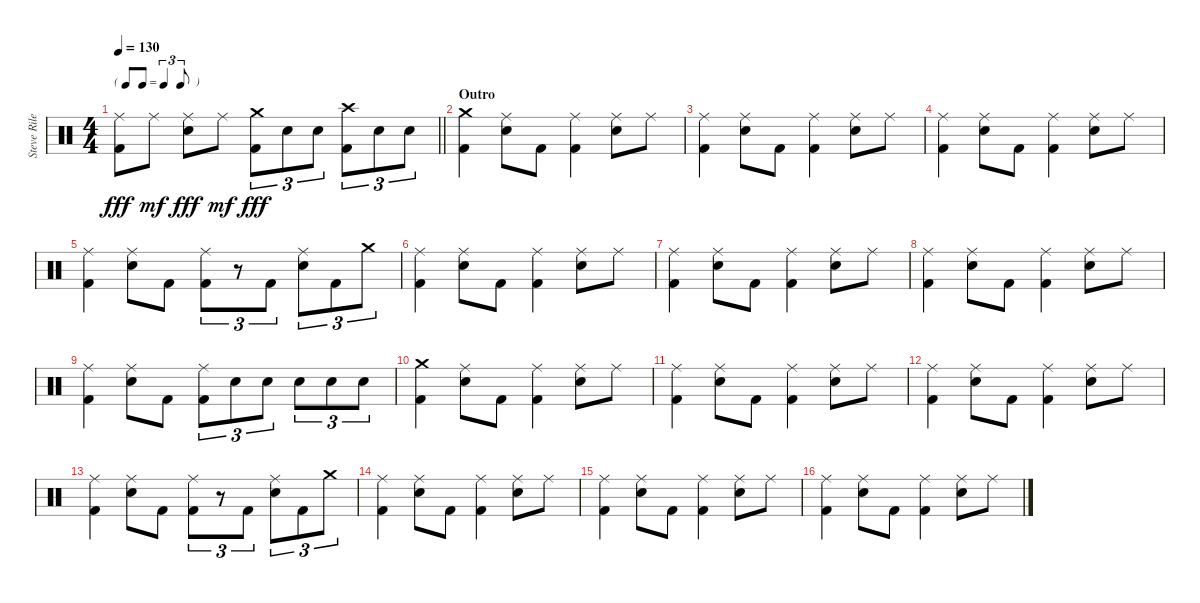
\track ("Steve Riley - Drums" "Steve Rile") {instrument percussion}
\staff {score}
\articulation defaults
\ts (4 4)
\tf triplet8th
\tempo 130
\clef neutral
\barLineRight lightlight
\ks c
("Ride (middle)" "Kick (hit) 2").8{dy fff} "Ride (middle)".8{dy mf} ("Ride (middle)" "Electric Snare (hit)").8{dy fff} "Ride (middle)".8{dy mf} ("Crash medium (hit)" "Kick (hit) 2").8{tu (3 2) dy fff} "Electric Snare (hit)".8{tu (3 2)} "Electric Snare (hit)".8{tu (3 2)} ("Crash high (hit)" "Kick (hit) 2").8{tu (3 2)} "Electric Snare (hit)".8{tu (3 2)} "Electric Snare (hit)".8{tu (3 2)} |
\section ("" "Outro")
("Crash medium (hit)" "Kick (hit) 2").4 ("Ride (middle)" "Electric Snare (hit)").8 "Kick (hit) 2".8 ("Ride (middle)" "Kick (hit) 2").4 ("Ride (middle)" "Electric Snare (hit)").8 "Ride (middle)".8 |
("Ride (middle)" "Kick (hit) 2").4 ("Ride (middle)" "Electric Snare (hit)").8 "Kick (hit) 2".8 ("Ride (middle)" "Kick (hit) 2").4 ("Ride (middle)" "Electric Snare (hit)").8 "Ride (middle)".8 |
("Ride (middle)" "Kick (hit) 2").4 ("Ride (middle)" "Electric Snare (hit)").8 "Kick (hit) 2".8 ("Ride (middle)" "Kick (hit) 2").4 ("Ride (middle)" "Electric Snare (hit)").8 "Ride (middle)".8 |
("Ride (middle)" "Kick (hit) 2").4 ("Ride (middle)" "Electric Snare (hit)").8 "Kick (hit) 2".8 ("Ride (middle)" "Kick (hit) 2").8{tu (3 2)} r.8{tu (3 2)} "Kick (hit) 2".8{tu (3 2)} ("Ride (middle)" "Electric Snare (hit)").8{tu (3 2)} "Kick (hit) 2".8{tu (3 2)} "Crash medium (hit)".8{tu (3 2)} |
("Ride (middle)" "Kick (hit) 2").4 ("Ride (middle)" "Electric Snare (hit)").8 "Kick (hit) 2".8 ("Ride (middle)" "Kick (hit) 2").4 ("Ride (middle)" "Electric Snare (hit)").8 "Ride (middle)".8 |
("Ride (middle)" "Kick (hit) 2").4 ("Ride (middle)" "Electric Snare (hit)").8 "Kick (hit) 2".8 ("Ride (middle)" "Kick (hit) 2").4 ("Ride (middle)" "Electric Snare (hit)").8 "Ride (middle)".8 |
("Ride (middle)" "Kick (hit) 2").4 ("Ride (middle)" "Electric Snare (hit)").8 "Kick (hit) 2".8 ("Ride (middle)" "Kick (hit) 2").4 ("Ride (middle)" "Electric Snare (hit)").8 "Ride (middle)".8 |
("Ride (middle)" "Kick (hit) 2").4 ("Ride (middle)" "Electric Snare (hit)").8 "Kick (hit) 2".8 ("Ride (middle)" "Kick (hit) 2").8{tu (3 2)} "Electric Snare (hit)".8{tu (3 2)} "Electric Snare (hit)".8{tu (3 2)} "Electric Snare (hit)".8{tu (3 2)} "Electric Snare (hit)".8{tu (3 2)} "Electric Snare (hit)".8{tu (3 2)} |
("Crash medium (hit)" "Kick (hit) 2").4 ("Ride (middle)" "Electric Snare (hit)").8 "Kick (hit) 2".8 ("Ride (middle)" "Kick (hit) 2").4 ("Ride (middle)" "Electric Snare (hit)").8 "Ride (middle)".8 |
("Ride (middle)" "Kick (hit) 2").4 ("Ride (middle)" "Electric Snare (hit)").8 "Kick (hit) 2".8 ("Ride (middle)" "Kick (hit) 2").4 ("Ride (middle)" "Electric Snare (hit)").8 "Ride (middle)".8 |
("Ride (middle)" "Kick (hit) 2").4 ("Ride (middle)" "Electric Snare (hit)").8 "Kick (hit) 2".8 ("Ride (middle)" "Kick (hit) 2").4 ("Ride (middle)" "Electric Snare (hit)").8 "Ride (middle)".8 |
("Ride (middle)" "Kick (hit) 2").4 ("Ride (middle)" "Electric Snare (hit)").8 "Kick (hit) 2".8 ("Ride (middle)" "Kick (hit) 2").8{tu (3 2)} r.8{tu (3 2)} "Kick (hit) 2".8{tu (3 2)} ("Ride (middle)" "Electric Snare (hit)").8{tu (3 2)} "Kick (hit) 2".8{tu (3 2)} "Crash medium (hit)".8{tu (3 2)} |
("Ride (middle)" "Kick (hit) 2").4 ("Ride (middle)" "Electric Snare (hit)").8 "Kick (hit) 2".8 ("Ride (middle)" "Kick (hit) 2").4 ("Ride (middle)" "Electric Snare (hit)").8 "Ride (middle)".8 |
("Ride (middle)" "Kick (hit) 2").4 ("Ride (middle)" "Electric Snare (hit)").8 "Kick (hit) 2".8 ("Ride (middle)" "Kick (hit) 2").4 ("Ride (middle)" "Electric Snare (hit)").8 "Ride (middle)".8 |
("Ride (middle)" "Kick (hit) 2").4 ("Ride (middle)" "Electric Snare (hit)").8 "Kick (hit) 2".8 ("Ride (middle)" "Kick (hit) 2").4 ("Ride (middle)" "Electric Snare (hit)").8 "Ride (middle)".8
